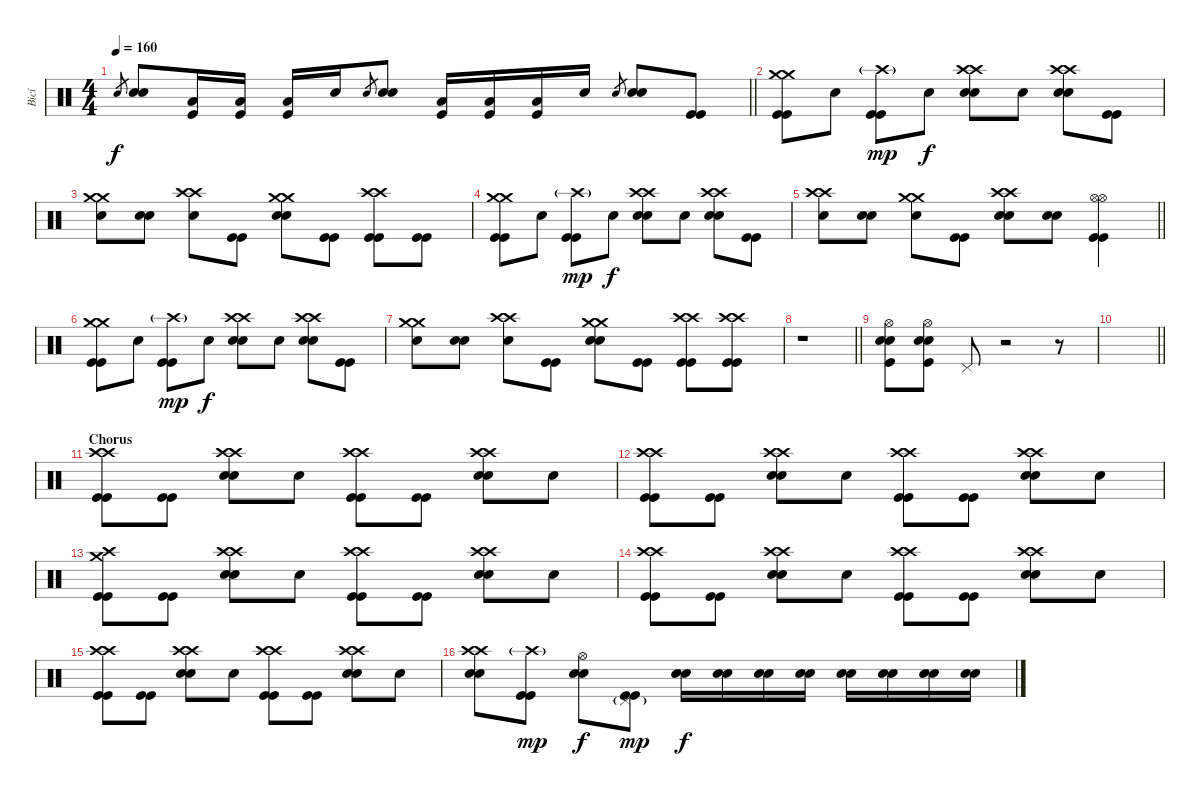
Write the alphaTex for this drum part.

\track ("Bicí" "Bicí") {instrument percussion}
\staff {score}
\articulation defaults
\ts (4 4)
\tempo 160
\clef neutral
\barLineRight lightlight
\ks c "Electric Snare (hit)".8{gr dy f}
("Electric Snare (hit)" "Electric Snare (hit)").8 ("Kick (hit)" "Low Tom (hit)").16 ("Kick (hit)" "Low Tom (hit)").16 ("Kick (hit)" "Low Tom (hit)").16 "Snare (hit)".16 "Electric Snare (hit)".8{gr} ("Electric Snare (hit)" "Electric Snare (hit)").8 ("Kick (hit)" "Low Tom (hit)").16 ("Kick (hit)" "Low Tom (hit)").16 ("Kick (hit)" "Low Tom (hit)").16 "Snare (hit)".16 "Electric Snare (hit)".8{gr} ("Electric Snare (hit)" "Electric Snare (hit)").8 ("Kick (hit)" "Kick (hit)").8 |
("Crash medium (hit)" "Crash medium (hit)" "Kick (hit)" "Kick (hit)").8 "Snare (hit)".8 ("Crash high (hit)"{g} "Kick (hit)" "Kick (hit)").8{dy mp} "Snare (hit)".8{dy f} ("Crash high (hit)" "Crash high (hit)" "Electric Snare (hit)" "Electric Snare (hit)").8 "Snare (hit)".8 ("Crash high (hit)" "Crash high (hit)" "Electric Snare (hit)" "Electric Snare (hit)").8 ("Kick (hit)" "Kick (hit)").8 |
("Crash medium (hit)" "Crash medium (hit)" "Snare (hit)").8 ("Electric Snare (hit)" "Electric Snare (hit)").8 ("Crash high (hit)" "Crash high (hit)" "Snare (hit)").8 ("Kick (hit)" "Kick (hit)").8 ("Crash medium (hit)" "Crash medium (hit)" "Electric Snare (hit)" "Electric Snare (hit)").8 ("Kick (hit)" "Kick (hit)").8 ("Crash high (hit)" "Crash high (hit)" "Kick (hit)" "Kick (hit)").8 ("Kick (hit)" "Kick (hit)").8 |
("Crash medium (hit)" "Crash medium (hit)" "Kick (hit)" "Kick (hit)").8 "Snare (hit)".8 ("Crash high (hit)"{g} "Kick (hit)" "Kick (hit)").8{dy mp} "Snare (hit)".8{dy f} ("Crash high (hit)" "Crash high (hit)" "Electric Snare (hit)" "Electric Snare (hit)").8 "Snare (hit)".8 ("Crash high (hit)" "Crash high (hit)" "Electric Snare (hit)" "Electric Snare (hit)").8 ("Kick (hit)" "Kick (hit)").8 |
\barLineRight lightlight
("Crash high (hit)" "Crash high (hit)" "Snare (hit)").8 ("Electric Snare (hit)" "Electric Snare (hit)").8 ("Crash medium (hit)" "Crash medium (hit)" "Snare (hit)").8 ("Kick (hit)" "Kick (hit)").8 ("Crash high (hit)" "Crash high (hit)" "Electric Snare (hit)" "Electric Snare (hit)").8 ("Electric Snare (hit)" "Electric Snare (hit)").8 ("Hi-Hat (open)" "Hi-Hat (open)" "Kick (hit)" "Kick (hit)").4 |
("Crash medium (hit)" "Crash medium (hit)" "Kick (hit)" "Kick (hit)").8 "Snare (hit)".8 ("Crash high (hit)"{g} "Kick (hit)" "Kick (hit)").8{dy mp} "Snare (hit)".8{dy f} ("Crash high (hit)" "Crash high (hit)" "Electric Snare (hit)" "Electric Snare (hit)").8 "Snare (hit)".8 ("Crash high (hit)" "Crash high (hit)" "Electric Snare (hit)" "Electric Snare (hit)").8 ("Kick (hit)" "Kick (hit)").8 |
("Crash medium (hit)" "Crash medium (hit)" "Snare (hit)").8 ("Electric Snare (hit)" "Electric Snare (hit)").8 ("Crash high (hit)" "Crash high (hit)" "Snare (hit)").8 ("Kick (hit)" "Kick (hit)").8 ("Crash medium (hit)" "Crash medium (hit)" "Electric Snare (hit)" "Electric Snare (hit)").8 ("Kick (hit)" "Kick (hit)").8 ("Crash high (hit)" "Crash high (hit)" "Kick (hit)" "Kick (hit)").8 ("Crash high (hit)" "Crash high (hit)" "Kick (hit)" "Kick (hit)").8 |
\barLineRight lightlight
r.1 |
\section ("" "")
("Hi-Hat (open)" "Electric Snare (hit)" "Electric Snare (hit)" "Kick (hit)").8 ("Hi-Hat (open)" "Electric Snare (hit)" "Electric Snare (hit)" "Kick (hit)").8 "Pedal Hi-Hat (hit)".8 r.2 r.8 |
\barLineRight lightlight
|
\section ("" "Chorus")
("Crash high (hit)" "Crash high (hit)" "Kick (hit)" "Kick (hit)").8 ("Kick (hit)" "Kick (hit)").8 ("Crash high (hit)" "Crash high (hit)" "Electric Snare (hit)" "Electric Snare (hit)").8 "Snare (hit)".8 ("Crash high (hit)" "Crash high (hit)" "Kick (hit)" "Kick (hit)").8 ("Kick (hit)" "Kick (hit)").8 ("Crash high (hit)" "Crash high (hit)" "Electric Snare (hit)" "Electric Snare (hit)").8 "Snare (hit)".8 |
("Crash high (hit)" "Crash high (hit)" "Kick (hit)" "Kick (hit)").8 ("Kick (hit)" "Kick (hit)").8 ("Crash high (hit)" "Crash high (hit)" "Electric Snare (hit)" "Electric Snare (hit)").8 "Snare (hit)".8 ("Crash high (hit)" "Crash high (hit)" "Kick (hit)" "Kick (hit)").8 ("Kick (hit)" "Kick (hit)").8 ("Crash high (hit)" "Crash high (hit)" "Electric Snare (hit)" "Electric Snare (hit)").8 "Snare (hit)".8 |
("Crash medium (hit)" "Crash high (hit)" "Kick (hit)" "Kick (hit)").8 ("Kick (hit)" "Kick (hit)").8 ("Crash high (hit)" "Crash high (hit)" "Electric Snare (hit)" "Electric Snare (hit)").8 "Snare (hit)".8 ("Crash high (hit)" "Crash high (hit)" "Kick (hit)" "Kick (hit)").8 ("Kick (hit)" "Kick (hit)").8 ("Crash high (hit)" "Crash high (hit)" "Electric Snare (hit)" "Electric Snare (hit)").8 "Snare (hit)".8 |
("Crash high (hit)" "Crash high (hit)" "Kick (hit)" "Kick (hit)").8 ("Kick (hit)" "Kick (hit)").8 ("Crash high (hit)" "Crash high (hit)" "Electric Snare (hit)" "Electric Snare (hit)").8 "Snare (hit)".8 ("Crash high (hit)" "Crash high (hit)" "Kick (hit)" "Kick (hit)").8 ("Kick (hit)" "Kick (hit)").8 ("Crash high (hit)" "Crash high (hit)" "Electric Snare (hit)" "Electric Snare (hit)").8 "Snare (hit)".8 |
("Crash high (hit)" "Crash high (hit)" "Kick (hit)" "Kick (hit)").8 ("Kick (hit)" "Kick (hit)").8 ("Crash high (hit)" "Crash high (hit)" "Electric Snare (hit)" "Electric Snare (hit)").8 "Snare (hit)".8 ("Crash high (hit)" "Crash high (hit)" "Kick (hit)" "Kick (hit)").8 ("Kick (hit)" "Kick (hit)").8 ("Crash high (hit)" "Crash high (hit)" "Electric Snare (hit)" "Electric Snare (hit)").8 "Snare (hit)".8 |
("Crash high (hit)" "Crash high (hit)" "Electric Snare (hit)" "Electric Snare (hit)").8 ("Crash high (hit)"{g} "Kick (hit)" "Kick (hit)").8{dy mp} ("Hi-Hat (open)" "Electric Snare (hit)" "Electric Snare (hit)").8{dy f} ("Pedal Hi-Hat (hit)"{g} "Kick (hit)" "Kick (hit)").8{dy mp} ("Electric Snare (hit)" "Electric Snare (hit)").16{dy f} ("Electric Snare (hit)" "Electric Snare (hit)").16 ("Electric Snare (hit)" "Electric Snare (hit)").16 ("Electric Snare (hit)" "Electric Snare (hit)").16 ("Electric Snare (hit)" "Electric Snare (hit)").16 ("Electric Snare (hit)" "Electric Snare (hit)").16 ("Electric Snare (hit)" "Electric Snare (hit)").16 ("Electric Snare (hit)" "Electric Snare (hit)").16
